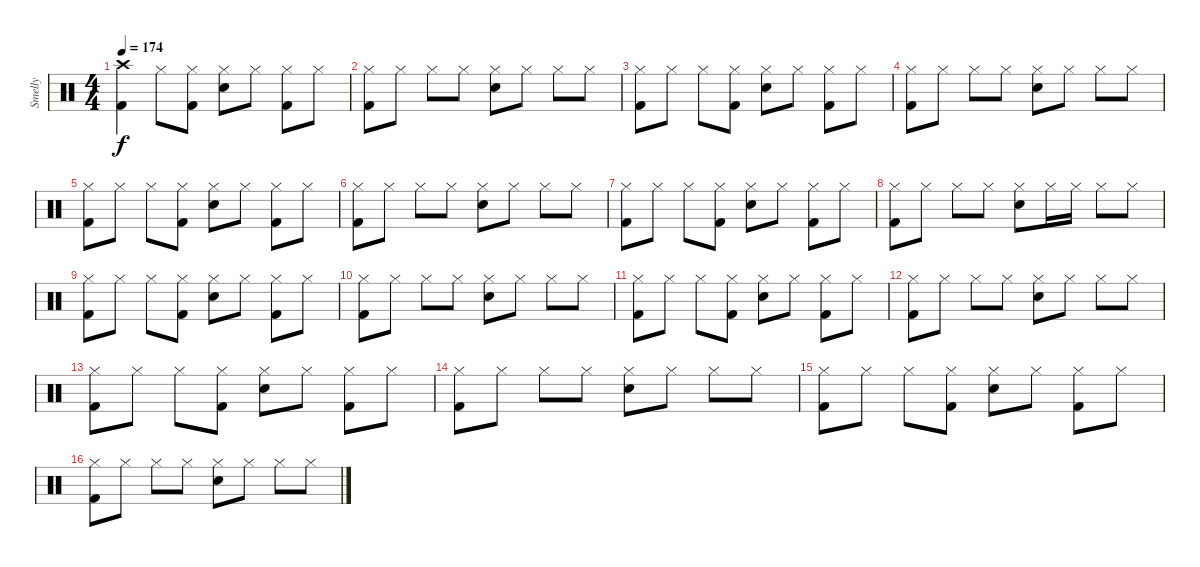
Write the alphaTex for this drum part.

\track ("Smelly" "Smelly") {instrument percussion}
\staff {score}
\articulation defaults
\ts (4 4)
\section ("" "")
\tempo 174
\clef neutral
\ks c
("Crash high (hit)" "Kick (hit) 2").4{dy f} "Hi-Hat (closed)".8 ("Hi-Hat (closed)" "Kick (hit) 2").8 ("Hi-Hat (closed)" "Electric Snare (hit)").8 "Hi-Hat (closed)".8 ("Hi-Hat (closed)" "Kick (hit) 2").8 "Hi-Hat (closed)".8 |
("Hi-Hat (closed)" "Kick (hit) 2").8 "Hi-Hat (closed)".8 "Hi-Hat (closed)".8 "Hi-Hat (closed)".8 ("Hi-Hat (closed)" "Electric Snare (hit)").8 "Hi-Hat (closed)".8 "Hi-Hat (closed)".8 "Hi-Hat (closed)".8 |
("Hi-Hat (closed)" "Kick (hit) 2").8 "Hi-Hat (closed)".8 "Hi-Hat (closed)".8 ("Hi-Hat (closed)" "Kick (hit) 2").8 ("Hi-Hat (closed)" "Electric Snare (hit)").8 "Hi-Hat (closed)".8 ("Hi-Hat (closed)" "Kick (hit) 2").8 "Hi-Hat (closed)".8 |
("Hi-Hat (closed)" "Kick (hit) 2").8 "Hi-Hat (closed)".8 "Hi-Hat (closed)".8 "Hi-Hat (closed)".8 ("Hi-Hat (closed)" "Electric Snare (hit)").8 "Hi-Hat (closed)".8 "Hi-Hat (closed)".8 "Hi-Hat (closed)".8 |
("Hi-Hat (closed)" "Kick (hit) 2").8 "Hi-Hat (closed)".8 "Hi-Hat (closed)".8 ("Hi-Hat (closed)" "Kick (hit) 2").8 ("Hi-Hat (closed)" "Electric Snare (hit)").8 "Hi-Hat (closed)".8 ("Hi-Hat (closed)" "Kick (hit) 2").8 "Hi-Hat (closed)".8 |
("Hi-Hat (closed)" "Kick (hit) 2").8 "Hi-Hat (closed)".8 "Hi-Hat (closed)".8 "Hi-Hat (closed)".8 ("Hi-Hat (closed)" "Electric Snare (hit)").8 "Hi-Hat (closed)".8 "Hi-Hat (closed)".8 "Hi-Hat (closed)".8 |
("Hi-Hat (closed)" "Kick (hit) 2").8 "Hi-Hat (closed)".8 "Hi-Hat (closed)".8 ("Hi-Hat (closed)" "Kick (hit) 2").8 ("Hi-Hat (closed)" "Electric Snare (hit)").8 "Hi-Hat (closed)".8 ("Hi-Hat (closed)" "Kick (hit) 2").8 "Hi-Hat (closed)".8 |
("Hi-Hat (closed)" "Kick (hit) 2").8 "Hi-Hat (closed)".8 "Hi-Hat (closed)".8 "Hi-Hat (closed)".8 ("Hi-Hat (closed)" "Electric Snare (hit)").8 "Hi-Hat (closed)".16 "Hi-Hat (closed)".16 "Hi-Hat (closed)".8 "Hi-Hat (closed)".8 |
("Hi-Hat (closed)" "Kick (hit) 2").8 "Hi-Hat (closed)".8 "Hi-Hat (closed)".8 ("Hi-Hat (closed)" "Kick (hit) 2").8 ("Hi-Hat (closed)" "Electric Snare (hit)").8 "Hi-Hat (closed)".8 ("Hi-Hat (closed)" "Kick (hit) 2").8 "Hi-Hat (closed)".8 |
("Hi-Hat (closed)" "Kick (hit) 2").8 "Hi-Hat (closed)".8 "Hi-Hat (closed)".8 "Hi-Hat (closed)".8 ("Hi-Hat (closed)" "Electric Snare (hit)").8 "Hi-Hat (closed)".8 "Hi-Hat (closed)".8 "Hi-Hat (closed)".8 |
("Hi-Hat (closed)" "Kick (hit) 2").8 "Hi-Hat (closed)".8 "Hi-Hat (closed)".8 ("Hi-Hat (closed)" "Kick (hit) 2").8 ("Hi-Hat (closed)" "Electric Snare (hit)").8 "Hi-Hat (closed)".8 ("Hi-Hat (closed)" "Kick (hit) 2").8 "Hi-Hat (closed)".8 |
("Hi-Hat (closed)" "Kick (hit) 2").8 "Hi-Hat (closed)".8 "Hi-Hat (closed)".8 "Hi-Hat (closed)".8 ("Hi-Hat (closed)" "Electric Snare (hit)").8 "Hi-Hat (closed)".8 "Hi-Hat (closed)".8 "Hi-Hat (closed)".8 |
("Hi-Hat (closed)" "Kick (hit) 2").8 "Hi-Hat (closed)".8 "Hi-Hat (closed)".8 ("Hi-Hat (closed)" "Kick (hit) 2").8 ("Hi-Hat (closed)" "Electric Snare (hit)").8 "Hi-Hat (closed)".8 ("Hi-Hat (closed)" "Kick (hit) 2").8 "Hi-Hat (closed)".8 |
("Hi-Hat (closed)" "Kick (hit) 2").8 "Hi-Hat (closed)".8 "Hi-Hat (closed)".8 "Hi-Hat (closed)".8 ("Hi-Hat (closed)" "Electric Snare (hit)").8 "Hi-Hat (closed)".8 "Hi-Hat (closed)".8 "Hi-Hat (closed)".8 |
("Hi-Hat (closed)" "Kick (hit) 2").8 "Hi-Hat (closed)".8 "Hi-Hat (closed)".8 ("Hi-Hat (closed)" "Kick (hit) 2").8 ("Hi-Hat (closed)" "Electric Snare (hit)").8 "Hi-Hat (closed)".8 ("Hi-Hat (closed)" "Kick (hit) 2").8 "Hi-Hat (closed)".8 |
("Hi-Hat (closed)" "Kick (hit) 2").8 "Hi-Hat (closed)".8 "Hi-Hat (closed)".8 "Hi-Hat (closed)".8 ("Hi-Hat (closed)" "Electric Snare (hit)").8 "Hi-Hat (closed)".8 "Hi-Hat (closed)".8 "Hi-Hat (closed)".8
